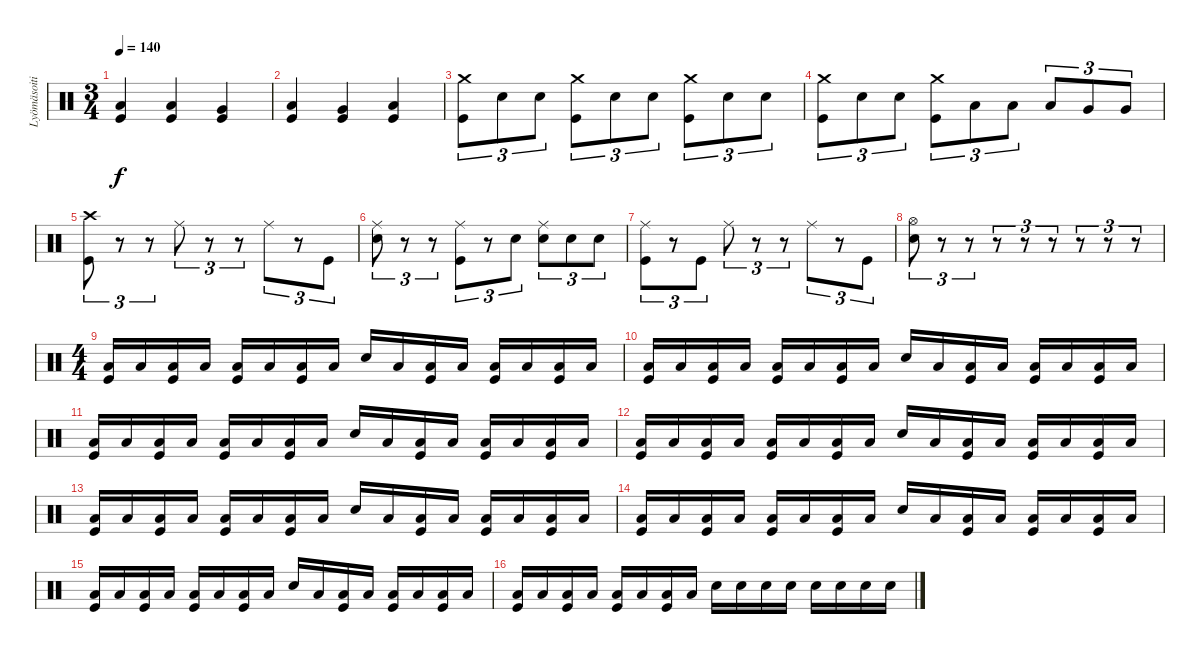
\track ("Lyömäsoitin" "Lyömäsoiti") {instrument percussion}
\staff {score}
\articulation defaults
\ts (3 4)
\tempo 140
\clef neutral
\ks c
("Low Tom (hit)" "Kick (hit)").4{dy f} ("Low Tom (hit)" "Kick (hit)").4 ("Very Low Tom (hit)" "Kick (hit)").4 |
("Low Tom (hit)" "Kick (hit)").4 ("Very Low Tom (hit)" "Kick (hit)").4 ("Low Floor Tom (hit)" "Kick (hit)").4 |
("Crash medium (hit)" "Kick (hit)").8{tu (3 2)} "Electric Snare (hit)".8{tu (3 2)} "Electric Snare (hit)".8{tu (3 2)} ("Crash medium (hit)" "Kick (hit)").8{tu (3 2)} "Electric Snare (hit)".8{tu (3 2)} "Electric Snare (hit)".8{tu (3 2)} ("Crash medium (hit)" "Kick (hit)").8{tu (3 2)} "Electric Snare (hit)".8{tu (3 2)} "Electric Snare (hit)".8{tu (3 2)} |
("Crash medium (hit)" "Kick (hit)").8{tu (3 2)} "Electric Snare (hit)".8{tu (3 2)} "Electric Snare (hit)".8{tu (3 2)} ("Crash medium (hit)" "Kick (hit)").8{tu (3 2)} "Low Tom (hit)".8{tu (3 2)} "Low Tom (hit)".8{tu (3 2)} "Low Tom (hit)".8{tu (3 2)} "Very Low Tom (hit)".8{tu (3 2)} "Very Low Tom (hit)".8{tu (3 2)} |
("Crash high (hit)" "Kick (hit)").8{tu (3 2)} r.8{tu (3 2)} r.8{tu (3 2)} "Ride (middle)".8{tu (3 2)} r.8{tu (3 2)} r.8{tu (3 2)} "Ride (middle)".8{tu (3 2)} r.8{tu (3 2)} "Kick (hit)".8{tu (3 2)} |
("Ride (middle)" "Electric Snare (hit)").8{tu (3 2)} r.8{tu (3 2)} r.8{tu (3 2)} ("Ride (middle)" "Kick (hit)").8{tu (3 2)} r.8{tu (3 2)} "Electric Snare (hit)".8{tu (3 2)} ("Ride (middle)" "Electric Snare (hit)").8{tu (3 2)} "Electric Snare (hit)".8{tu (3 2)} "Electric Snare (hit)".8{tu (3 2)} |
("Ride (middle)" "Kick (hit)").8{tu (3 2)} r.8{tu (3 2)} "Kick (hit)".8{tu (3 2)} "Ride (middle)".8{tu (3 2)} r.8{tu (3 2)} r.8{tu (3 2)} "Ride (middle)".8{tu (3 2)} r.8{tu (3 2)} "Kick (hit)".8{tu (3 2)} |
("Hi-Hat (open)" "Electric Snare (hit)").8{tu (3 2)} r.8{tu (3 2)} r.8{tu (3 2)} r.8{tu (3 2)} r.8{tu (3 2)} r.8{tu (3 2)} r.8{tu (3 2)} r.8{tu (3 2)} r.8{tu (3 2)} |
\ts (4 4)
("Low Floor Tom (hit)" "Kick (hit)").16 "Low Floor Tom (hit)".16 ("Low Floor Tom (hit)" "Kick (hit)").16 "Low Floor Tom (hit)".16 ("Low Floor Tom (hit)" "Kick (hit)").16 "Low Floor Tom (hit)".16 ("Low Floor Tom (hit)" "Kick (hit)").16 "Low Floor Tom (hit)".16 "Electric Snare (hit)".16 "Low Floor Tom (hit)".16 ("Low Floor Tom (hit)" "Kick (hit)").16 "Low Floor Tom (hit)".16 ("Low Floor Tom (hit)" "Kick (hit)").16 "Low Floor Tom (hit)".16 ("Low Floor Tom (hit)" "Kick (hit)").16 "Low Floor Tom (hit)".16 |
("Low Floor Tom (hit)" "Kick (hit)").16 "Low Floor Tom (hit)".16 ("Low Floor Tom (hit)" "Kick (hit)").16 "Low Floor Tom (hit)".16 ("Low Floor Tom (hit)" "Kick (hit)").16 "Low Floor Tom (hit)".16 ("Low Floor Tom (hit)" "Kick (hit)").16 "Low Floor Tom (hit)".16 "Electric Snare (hit)".16 "Low Floor Tom (hit)".16 ("Low Floor Tom (hit)" "Kick (hit)").16 "Low Floor Tom (hit)".16 ("Low Floor Tom (hit)" "Kick (hit)").16 "Low Floor Tom (hit)".16 ("Low Floor Tom (hit)" "Kick (hit)").16 "Low Floor Tom (hit)".16 |
("Low Floor Tom (hit)" "Kick (hit)").16 "Low Floor Tom (hit)".16 ("Low Floor Tom (hit)" "Kick (hit)").16 "Low Floor Tom (hit)".16 ("Low Floor Tom (hit)" "Kick (hit)").16 "Low Floor Tom (hit)".16 ("Low Floor Tom (hit)" "Kick (hit)").16 "Low Floor Tom (hit)".16 "Electric Snare (hit)".16 "Low Floor Tom (hit)".16 ("Low Floor Tom (hit)" "Kick (hit)").16 "Low Floor Tom (hit)".16 ("Low Floor Tom (hit)" "Kick (hit)").16 "Low Floor Tom (hit)".16 ("Low Floor Tom (hit)" "Kick (hit)").16 "Low Floor Tom (hit)".16 |
("Low Floor Tom (hit)" "Kick (hit)").16 "Low Floor Tom (hit)".16 ("Low Floor Tom (hit)" "Kick (hit)").16 "Low Floor Tom (hit)".16 ("Low Floor Tom (hit)" "Kick (hit)").16 "Low Floor Tom (hit)".16 ("Low Floor Tom (hit)" "Kick (hit)").16 "Low Floor Tom (hit)".16 "Electric Snare (hit)".16 "Low Floor Tom (hit)".16 ("Low Floor Tom (hit)" "Kick (hit)").16 "Low Floor Tom (hit)".16 ("Low Floor Tom (hit)" "Kick (hit)").16 "Low Floor Tom (hit)".16 ("Low Floor Tom (hit)" "Kick (hit)").16 "Low Floor Tom (hit)".16 |
("Low Floor Tom (hit)" "Kick (hit)").16 "Low Floor Tom (hit)".16 ("Low Floor Tom (hit)" "Kick (hit)").16 "Low Floor Tom (hit)".16 ("Low Floor Tom (hit)" "Kick (hit)").16 "Low Floor Tom (hit)".16 ("Low Floor Tom (hit)" "Kick (hit)").16 "Low Floor Tom (hit)".16 "Electric Snare (hit)".16 "Low Floor Tom (hit)".16 ("Low Floor Tom (hit)" "Kick (hit)").16 "Low Floor Tom (hit)".16 ("Low Floor Tom (hit)" "Kick (hit)").16 "Low Floor Tom (hit)".16 ("Low Floor Tom (hit)" "Kick (hit)").16 "Low Floor Tom (hit)".16 |
("Low Floor Tom (hit)" "Kick (hit)").16 "Low Floor Tom (hit)".16 ("Low Floor Tom (hit)" "Kick (hit)").16 "Low Floor Tom (hit)".16 ("Low Floor Tom (hit)" "Kick (hit)").16 "Low Floor Tom (hit)".16 ("Low Floor Tom (hit)" "Kick (hit)").16 "Low Floor Tom (hit)".16 "Electric Snare (hit)".16 "Low Floor Tom (hit)".16 ("Low Floor Tom (hit)" "Kick (hit)").16 "Low Floor Tom (hit)".16 ("Low Floor Tom (hit)" "Kick (hit)").16 "Low Floor Tom (hit)".16 ("Low Floor Tom (hit)" "Kick (hit)").16 "Low Floor Tom (hit)".16 |
("Low Floor Tom (hit)" "Kick (hit)").16 "Low Floor Tom (hit)".16 ("Low Floor Tom (hit)" "Kick (hit)").16 "Low Floor Tom (hit)".16 ("Low Floor Tom (hit)" "Kick (hit)").16 "Low Floor Tom (hit)".16 ("Low Floor Tom (hit)" "Kick (hit)").16 "Low Floor Tom (hit)".16 "Electric Snare (hit)".16 "Low Floor Tom (hit)".16 ("Low Floor Tom (hit)" "Kick (hit)").16 "Low Floor Tom (hit)".16 ("Low Floor Tom (hit)" "Kick (hit)").16 "Low Floor Tom (hit)".16 ("Low Floor Tom (hit)" "Kick (hit)").16 "Low Floor Tom (hit)".16 |
("Low Floor Tom (hit)" "Kick (hit)").16 "Low Floor Tom (hit)".16 ("Low Floor Tom (hit)" "Kick (hit)").16 "Low Floor Tom (hit)".16 ("Low Floor Tom (hit)" "Kick (hit)").16 "Low Floor Tom (hit)".16 ("Low Floor Tom (hit)" "Kick (hit)").16 "Low Floor Tom (hit)".16 "Electric Snare (hit)".16 "Electric Snare (hit)".16 "Electric Snare (hit)".16 "Electric Snare (hit)".16 "Electric Snare (hit)".16 "Electric Snare (hit)".16 "Electric Snare (hit)".16 "Electric Snare (hit)".16
